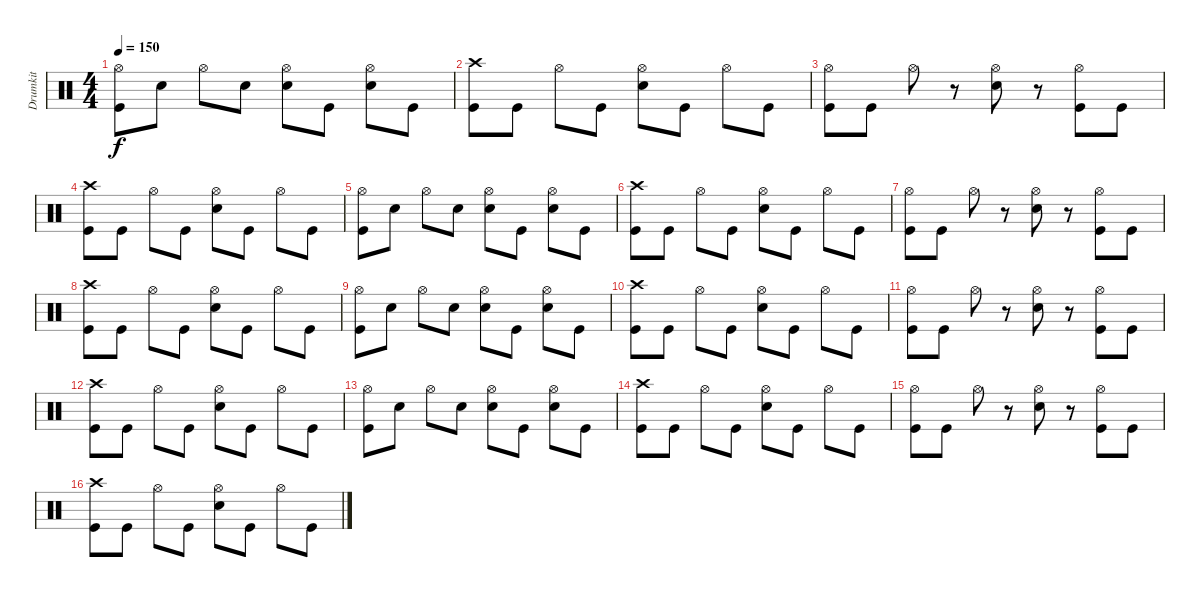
\track ("Drumkit" "Drumkit") {instrument percussion}
\staff {score}
\articulation defaults
\ts (4 4)
\tempo 150
\clef neutral
\ks c
("Kick (hit)" "Hi-Hat (open)").8{dy f} "Snare (hit) 2".8 "Hi-Hat (open)".8 "Snare (hit) 2".8 ("Snare (hit) 2" "Hi-Hat (open)").8 "Kick (hit)".8 ("Snare (hit) 2" "Hi-Hat (open)").8 "Kick (hit)".8 |
("Kick (hit)" "Crash high (hit)").8 "Kick (hit)".8 "Hi-Hat (open)".8 "Kick (hit)".8 ("Snare (hit) 2" "Hi-Hat (open)").8 "Kick (hit)".8 "Hi-Hat (open)".8 "Kick (hit)".8 |
("Kick (hit)" "Hi-Hat (open)").8 "Kick (hit)".8 "Hi-Hat (open)".8 r.8 ("Snare (hit) 2" "Hi-Hat (open)").8 r.8 ("Kick (hit)" "Hi-Hat (open)").8 "Kick (hit)".8 |
("Kick (hit)" "Crash high (hit)").8 "Kick (hit)".8 "Hi-Hat (open)".8 "Kick (hit)".8 ("Snare (hit) 2" "Hi-Hat (open)").8 "Kick (hit)".8 "Hi-Hat (open)".8 "Kick (hit)".8 |
("Kick (hit)" "Hi-Hat (open)").8 "Snare (hit) 2".8 "Hi-Hat (open)".8 "Snare (hit) 2".8 ("Snare (hit) 2" "Hi-Hat (open)").8 "Kick (hit)".8 ("Snare (hit) 2" "Hi-Hat (open)").8 "Kick (hit)".8 |
("Kick (hit)" "Crash high (hit)").8 "Kick (hit)".8 "Hi-Hat (open)".8 "Kick (hit)".8 ("Snare (hit) 2" "Hi-Hat (open)").8 "Kick (hit)".8 "Hi-Hat (open)".8 "Kick (hit)".8 |
("Kick (hit)" "Hi-Hat (open)").8 "Kick (hit)".8 "Hi-Hat (open)".8 r.8 ("Snare (hit) 2" "Hi-Hat (open)").8 r.8 ("Kick (hit)" "Hi-Hat (open)").8 "Kick (hit)".8 |
("Kick (hit)" "Crash high (hit)").8 "Kick (hit)".8 "Hi-Hat (open)".8 "Kick (hit)".8 ("Snare (hit) 2" "Hi-Hat (open)").8 "Kick (hit)".8 "Hi-Hat (open)".8 "Kick (hit)".8 |
("Kick (hit)" "Hi-Hat (open)").8 "Snare (hit) 2".8 "Hi-Hat (open)".8 "Snare (hit) 2".8 ("Snare (hit) 2" "Hi-Hat (open)").8 "Kick (hit)".8 ("Snare (hit) 2" "Hi-Hat (open)").8 "Kick (hit)".8 |
("Kick (hit)" "Crash high (hit)").8 "Kick (hit)".8 "Hi-Hat (open)".8 "Kick (hit)".8 ("Snare (hit) 2" "Hi-Hat (open)").8 "Kick (hit)".8 "Hi-Hat (open)".8 "Kick (hit)".8 |
("Kick (hit)" "Hi-Hat (open)").8 "Kick (hit)".8 "Hi-Hat (open)".8 r.8 ("Snare (hit) 2" "Hi-Hat (open)").8 r.8 ("Kick (hit)" "Hi-Hat (open)").8 "Kick (hit)".8 |
("Kick (hit)" "Crash high (hit)").8 "Kick (hit)".8 "Hi-Hat (open)".8 "Kick (hit)".8 ("Snare (hit) 2" "Hi-Hat (open)").8 "Kick (hit)".8 "Hi-Hat (open)".8 "Kick (hit)".8 |
("Kick (hit)" "Hi-Hat (open)").8 "Snare (hit) 2".8 "Hi-Hat (open)".8 "Snare (hit) 2".8 ("Snare (hit) 2" "Hi-Hat (open)").8 "Kick (hit)".8 ("Snare (hit) 2" "Hi-Hat (open)").8 "Kick (hit)".8 |
("Kick (hit)" "Crash high (hit)").8 "Kick (hit)".8 "Hi-Hat (open)".8 "Kick (hit)".8 ("Snare (hit) 2" "Hi-Hat (open)").8 "Kick (hit)".8 "Hi-Hat (open)".8 "Kick (hit)".8 |
("Kick (hit)" "Hi-Hat (open)").8 "Kick (hit)".8 "Hi-Hat (open)".8 r.8 ("Snare (hit) 2" "Hi-Hat (open)").8 r.8 ("Kick (hit)" "Hi-Hat (open)").8 "Kick (hit)".8 |
("Kick (hit)" "Crash high (hit)").8 "Kick (hit)".8 "Hi-Hat (open)".8 "Kick (hit)".8 ("Snare (hit) 2" "Hi-Hat (open)").8 "Kick (hit)".8 "Hi-Hat (open)".8 "Kick (hit)".8
